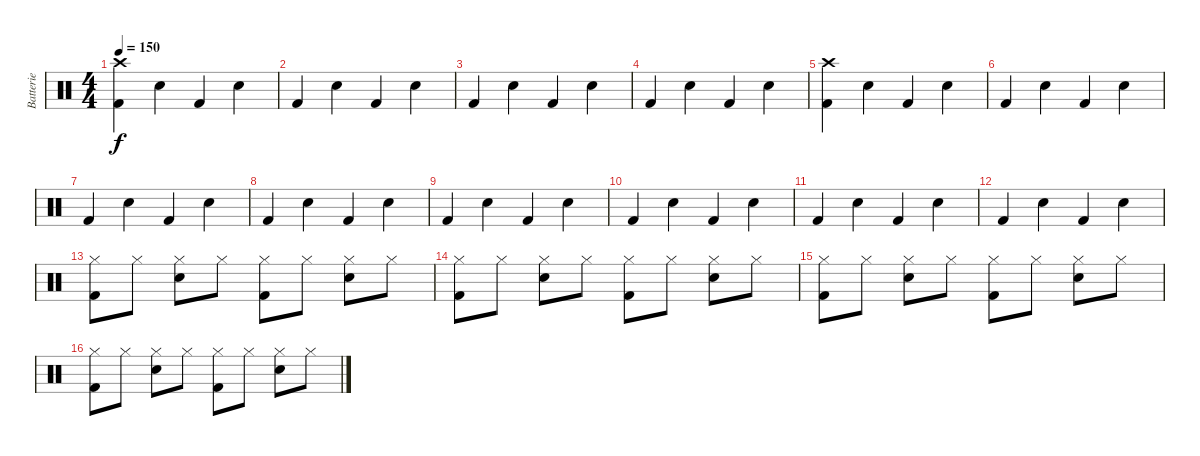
\track ("Batterie" "Batterie") {instrument percussion}
\staff {score}
\articulation defaults
\ts (4 4)
\tempo 150
\clef neutral
\ks c
("Crash high (hit)" "Kick (hit) 2").4{dy f} "Snare (hit) 2".4 "Kick (hit) 2".4 "Snare (hit) 2".4 |
"Kick (hit) 2".4 "Snare (hit) 2".4 "Kick (hit) 2".4 "Snare (hit) 2".4 |
"Kick (hit) 2".4 "Snare (hit) 2".4 "Kick (hit) 2".4 "Snare (hit) 2".4 |
"Kick (hit) 2".4 "Snare (hit) 2".4 "Kick (hit) 2".4 "Snare (hit) 2".4 |
("Crash high (hit)" "Kick (hit) 2").4 "Snare (hit) 2".4 "Kick (hit) 2".4 "Snare (hit) 2".4 |
"Kick (hit) 2".4 "Snare (hit) 2".4 "Kick (hit) 2".4 "Snare (hit) 2".4 |
"Kick (hit) 2".4 "Snare (hit) 2".4 "Kick (hit) 2".4 "Snare (hit) 2".4 |
"Kick (hit) 2".4 "Snare (hit) 2".4 "Kick (hit) 2".4 "Snare (hit) 2".4 |
"Kick (hit) 2".4 "Snare (hit) 2".4 "Kick (hit) 2".4 "Snare (hit) 2".4 |
"Kick (hit) 2".4 "Snare (hit) 2".4 "Kick (hit) 2".4 "Snare (hit) 2".4 |
"Kick (hit) 2".4 "Snare (hit) 2".4 "Kick (hit) 2".4 "Snare (hit) 2".4 |
"Kick (hit) 2".4 "Snare (hit) 2".4 "Kick (hit) 2".4 "Snare (hit) 2".4 |
("Hi-Hat (closed)" "Kick (hit) 2").8 "Hi-Hat (closed)".8 ("Hi-Hat (closed)" "Snare (hit) 2").8 "Hi-Hat (closed)".8 ("Hi-Hat (closed)" "Kick (hit) 2").8 "Hi-Hat (closed)".8 ("Hi-Hat (closed)" "Snare (hit) 2").8 "Hi-Hat (closed)".8 |
("Hi-Hat (closed)" "Kick (hit) 2").8 "Hi-Hat (closed)".8 ("Hi-Hat (closed)" "Snare (hit) 2").8 "Hi-Hat (closed)".8 ("Hi-Hat (closed)" "Kick (hit) 2").8 "Hi-Hat (closed)".8 ("Hi-Hat (closed)" "Snare (hit) 2").8 "Hi-Hat (closed)".8 |
("Hi-Hat (closed)" "Kick (hit) 2").8 "Hi-Hat (closed)".8 ("Hi-Hat (closed)" "Snare (hit) 2").8 "Hi-Hat (closed)".8 ("Hi-Hat (closed)" "Kick (hit) 2").8 "Hi-Hat (closed)".8 ("Hi-Hat (closed)" "Snare (hit) 2").8 "Hi-Hat (closed)".8 |
("Hi-Hat (closed)" "Kick (hit) 2").8 "Hi-Hat (closed)".8 ("Hi-Hat (closed)" "Snare (hit) 2").8 "Hi-Hat (closed)".8 ("Hi-Hat (closed)" "Kick (hit) 2").8 "Hi-Hat (closed)".8 ("Hi-Hat (closed)" "Snare (hit) 2").8 "Hi-Hat (closed)".8
